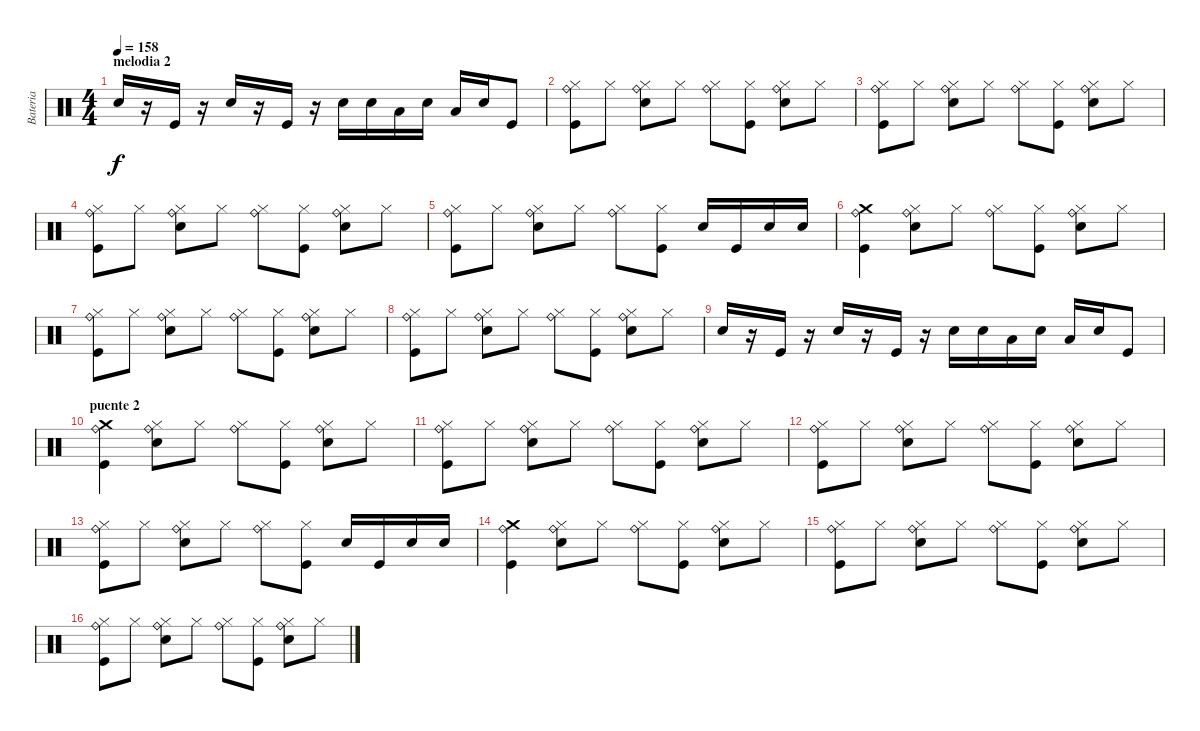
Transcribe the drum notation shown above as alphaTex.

\track ("Bateria" "Bateria") {instrument percussion}
\staff {score}
\articulation defaults
\ts (4 4)
\section ("" "melodia 2")
\tempo 158
\clef neutral
\ks c "Electric Snare (hit)".16{dy f}
r.16 "Kick (hit)".16 r.16 "Electric Snare (hit)".16 r.16 "Kick (hit)".16 r.16 "Electric Snare (hit)".16 "Electric Snare (hit)".16 "Low Tom (hit)".16 "Electric Snare (hit)".16 "Low Tom (hit)".16 "Electric Snare (hit)".16 "Kick (hit)".8 |
("Kick (hit)" "Hi-Hat (closed)" "Ride (bell)").8 "Hi-Hat (closed)".8 ("Electric Snare (hit)" "Hi-Hat (closed)" "Ride (bell)").8 "Hi-Hat (closed)".8 ("Hi-Hat (closed)" "Ride (bell)").8 ("Kick (hit)" "Hi-Hat (closed)").8 ("Electric Snare (hit)" "Hi-Hat (closed)" "Ride (bell)").8 "Hi-Hat (closed)".8 |
("Kick (hit)" "Hi-Hat (closed)" "Ride (bell)").8 "Hi-Hat (closed)".8 ("Electric Snare (hit)" "Hi-Hat (closed)" "Ride (bell)").8 "Hi-Hat (closed)".8 ("Hi-Hat (closed)" "Ride (bell)").8 ("Kick (hit)" "Hi-Hat (closed)").8 ("Electric Snare (hit)" "Hi-Hat (closed)" "Ride (bell)").8 "Hi-Hat (closed)".8 |
("Kick (hit)" "Hi-Hat (closed)" "Ride (bell)").8 "Hi-Hat (closed)".8 ("Electric Snare (hit)" "Hi-Hat (closed)" "Ride (bell)").8 "Hi-Hat (closed)".8 ("Hi-Hat (closed)" "Ride (bell)").8 ("Kick (hit)" "Hi-Hat (closed)").8 ("Electric Snare (hit)" "Hi-Hat (closed)" "Ride (bell)").8 "Hi-Hat (closed)".8 |
("Kick (hit)" "Hi-Hat (closed)" "Ride (bell)").8 "Hi-Hat (closed)".8 ("Electric Snare (hit)" "Hi-Hat (closed)" "Ride (bell)").8 "Hi-Hat (closed)".8 ("Hi-Hat (closed)" "Ride (bell)").8 ("Kick (hit)" "Hi-Hat (closed)").8 "Electric Snare (hit)".16 "Kick (hit)".16 "Snare (hit) 2".16 "Electric Snare (hit)".16 |
("Kick (hit)" "Crash medium (hit)" "Ride (bell)").4 ("Electric Snare (hit)" "Hi-Hat (closed)" "Ride (bell)").8 "Hi-Hat (closed)".8 ("Hi-Hat (closed)" "Ride (bell)").8 ("Kick (hit)" "Hi-Hat (closed)").8 ("Electric Snare (hit)" "Hi-Hat (closed)" "Ride (bell)").8 "Hi-Hat (closed)".8 |
("Kick (hit)" "Hi-Hat (closed)" "Ride (bell)").8 "Hi-Hat (closed)".8 ("Electric Snare (hit)" "Hi-Hat (closed)" "Ride (bell)").8 "Hi-Hat (closed)".8 ("Hi-Hat (closed)" "Ride (bell)").8 ("Kick (hit)" "Hi-Hat (closed)").8 ("Electric Snare (hit)" "Hi-Hat (closed)" "Ride (bell)").8 "Hi-Hat (closed)".8 |
("Kick (hit)" "Hi-Hat (closed)" "Ride (bell)").8 "Hi-Hat (closed)".8 ("Electric Snare (hit)" "Hi-Hat (closed)" "Ride (bell)").8 "Hi-Hat (closed)".8 ("Hi-Hat (closed)" "Ride (bell)").8 ("Kick (hit)" "Hi-Hat (closed)").8 ("Electric Snare (hit)" "Hi-Hat (closed)" "Ride (bell)").8 "Hi-Hat (closed)".8 |
"Electric Snare (hit)".16 r.16 "Kick (hit)".16 r.16 "Electric Snare (hit)".16 r.16 "Kick (hit)".16 r.16 "Electric Snare (hit)".16 "Electric Snare (hit)".16 "Low Tom (hit)".16 "Electric Snare (hit)".16 "Low Tom (hit)".16 "Electric Snare (hit)".16 "Kick (hit)".8 |
\section ("" "puente 2")
("Kick (hit)" "Crash medium (hit)" "Ride (bell)").4 ("Electric Snare (hit)" "Hi-Hat (closed)" "Ride (bell)").8 "Hi-Hat (closed)".8 ("Hi-Hat (closed)" "Ride (bell)").8 ("Kick (hit)" "Hi-Hat (closed)").8 ("Electric Snare (hit)" "Hi-Hat (closed)" "Ride (bell)").8 "Hi-Hat (closed)".8 |
("Kick (hit)" "Hi-Hat (closed)" "Ride (bell)").8 "Hi-Hat (closed)".8 ("Electric Snare (hit)" "Hi-Hat (closed)" "Ride (bell)").8 "Hi-Hat (closed)".8 ("Hi-Hat (closed)" "Ride (bell)").8 ("Kick (hit)" "Hi-Hat (closed)").8 ("Electric Snare (hit)" "Hi-Hat (closed)" "Ride (bell)").8 "Hi-Hat (closed)".8 |
("Kick (hit)" "Hi-Hat (closed)" "Ride (bell)").8 "Hi-Hat (closed)".8 ("Electric Snare (hit)" "Hi-Hat (closed)" "Ride (bell)").8 "Hi-Hat (closed)".8 ("Hi-Hat (closed)" "Ride (bell)").8 ("Kick (hit)" "Hi-Hat (closed)").8 ("Electric Snare (hit)" "Hi-Hat (closed)" "Ride (bell)").8 "Hi-Hat (closed)".8 |
("Kick (hit)" "Hi-Hat (closed)" "Ride (bell)").8 "Hi-Hat (closed)".8 ("Electric Snare (hit)" "Hi-Hat (closed)" "Ride (bell)").8 "Hi-Hat (closed)".8 ("Hi-Hat (closed)" "Ride (bell)").8 ("Kick (hit)" "Hi-Hat (closed)").8 "Electric Snare (hit)".16 "Kick (hit)".16 "Snare (hit) 2".16 "Electric Snare (hit)".16 |
("Kick (hit)" "Crash medium (hit)" "Ride (bell)").4 ("Electric Snare (hit)" "Hi-Hat (closed)" "Ride (bell)").8 "Hi-Hat (closed)".8 ("Hi-Hat (closed)" "Ride (bell)").8 ("Kick (hit)" "Hi-Hat (closed)").8 ("Electric Snare (hit)" "Hi-Hat (closed)" "Ride (bell)").8 "Hi-Hat (closed)".8 |
("Kick (hit)" "Hi-Hat (closed)" "Ride (bell)").8 "Hi-Hat (closed)".8 ("Electric Snare (hit)" "Hi-Hat (closed)" "Ride (bell)").8 "Hi-Hat (closed)".8 ("Hi-Hat (closed)" "Ride (bell)").8 ("Kick (hit)" "Hi-Hat (closed)").8 ("Electric Snare (hit)" "Hi-Hat (closed)" "Ride (bell)").8 "Hi-Hat (closed)".8 |
("Kick (hit)" "Hi-Hat (closed)" "Ride (bell)").8 "Hi-Hat (closed)".8 ("Electric Snare (hit)" "Hi-Hat (closed)" "Ride (bell)").8 "Hi-Hat (closed)".8 ("Hi-Hat (closed)" "Ride (bell)").8 ("Kick (hit)" "Hi-Hat (closed)").8 ("Electric Snare (hit)" "Hi-Hat (closed)" "Ride (bell)").8 "Hi-Hat (closed)".8
